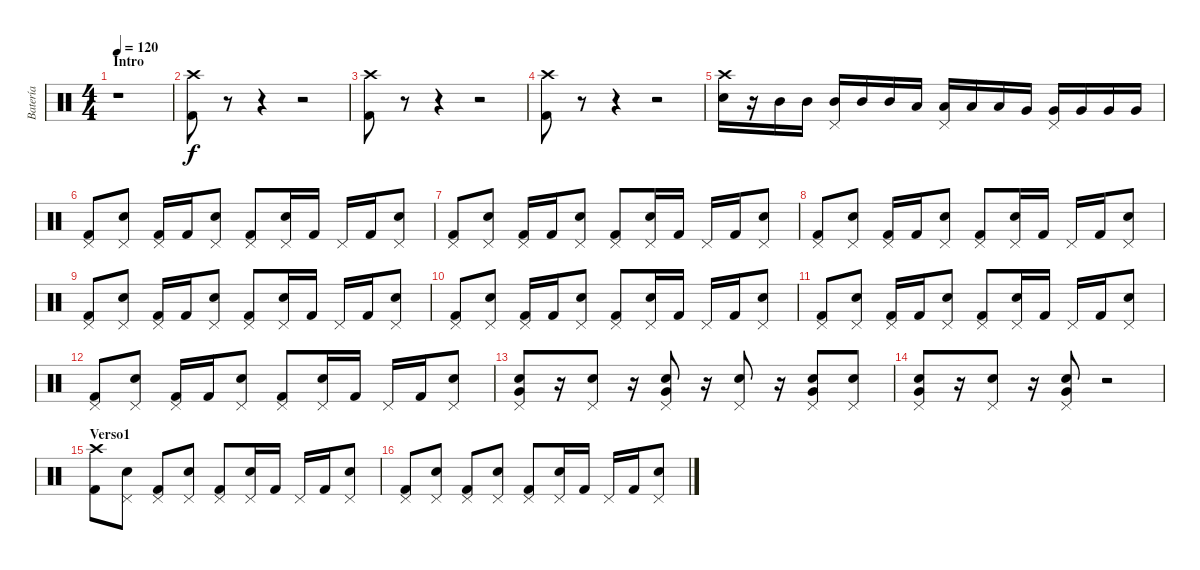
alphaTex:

\track ("Batería" "Batería") {instrument percussion}
\staff {score}
\articulation defaults
\ts (4 4)
\section ("" "Intro")
\tempo 120
\clef neutral
\ks c
r.1{dy f} |
("Crash high (hit)" "Kick (hit) 2").8 r.8 r.4 r.2 |
("Crash high (hit)" "Kick (hit) 2").8 r.8 r.4 r.2 |
("Crash high (hit)" "Kick (hit) 2").8 r.8 r.4 r.2 |
("Crash high (hit)" "Snare (hit) 2").16 r.16 "Mid Tom (hit)".16 "Mid Tom (hit)".16 ("Pedal Hi-Hat (hit)" "Mid Tom (hit)").16 "Mid Tom (hit)".16 "Mid Tom (hit)".16 "Low Tom (hit)".16 ("Pedal Hi-Hat (hit)" "Low Tom (hit)").16 "Low Tom (hit)".16 "Low Tom (hit)".16 "Very Low Tom (hit)".16 ("Pedal Hi-Hat (hit)" "Very Low Tom (hit)").16 "Very Low Tom (hit)".16 "Very Low Tom (hit)".16 "Very Low Tom (hit)".16 |
("Pedal Hi-Hat (hit)" "Kick (hit) 2").8 ("Pedal Hi-Hat (hit)" "Snare (hit) 2").8 ("Pedal Hi-Hat (hit)" "Kick (hit) 2").16 "Kick (hit) 2".16 ("Pedal Hi-Hat (hit)" "Snare (hit) 2").8 ("Pedal Hi-Hat (hit)" "Kick (hit) 2").8 ("Pedal Hi-Hat (hit)" "Snare (hit) 2").16 "Kick (hit) 2".16 "Pedal Hi-Hat (hit)".16 "Kick (hit) 2".16 ("Pedal Hi-Hat (hit)" "Snare (hit) 2").8 |
("Pedal Hi-Hat (hit)" "Kick (hit) 2").8 ("Pedal Hi-Hat (hit)" "Snare (hit) 2").8 ("Pedal Hi-Hat (hit)" "Kick (hit) 2").16 "Kick (hit) 2".16 ("Pedal Hi-Hat (hit)" "Snare (hit) 2").8 ("Pedal Hi-Hat (hit)" "Kick (hit) 2").8 ("Pedal Hi-Hat (hit)" "Snare (hit) 2").16 "Kick (hit) 2".16 "Pedal Hi-Hat (hit)".16 "Kick (hit) 2".16 ("Pedal Hi-Hat (hit)" "Snare (hit) 2").8 |
("Pedal Hi-Hat (hit)" "Kick (hit) 2").8 ("Pedal Hi-Hat (hit)" "Snare (hit) 2").8 ("Pedal Hi-Hat (hit)" "Kick (hit) 2").16 "Kick (hit) 2".16 ("Pedal Hi-Hat (hit)" "Snare (hit) 2").8 ("Pedal Hi-Hat (hit)" "Kick (hit) 2").8 ("Pedal Hi-Hat (hit)" "Snare (hit) 2").16 "Kick (hit) 2".16 "Pedal Hi-Hat (hit)".16 "Kick (hit) 2".16 ("Pedal Hi-Hat (hit)" "Snare (hit) 2").8 |
("Pedal Hi-Hat (hit)" "Kick (hit) 2").8 ("Pedal Hi-Hat (hit)" "Snare (hit) 2").8 ("Pedal Hi-Hat (hit)" "Kick (hit) 2").16 "Kick (hit) 2".16 ("Pedal Hi-Hat (hit)" "Snare (hit) 2").8 ("Pedal Hi-Hat (hit)" "Kick (hit) 2").8 ("Pedal Hi-Hat (hit)" "Snare (hit) 2").16 "Kick (hit) 2".16 "Pedal Hi-Hat (hit)".16 "Kick (hit) 2".16 ("Pedal Hi-Hat (hit)" "Snare (hit) 2").8 |
("Pedal Hi-Hat (hit)" "Kick (hit) 2").8 ("Pedal Hi-Hat (hit)" "Snare (hit) 2").8 ("Pedal Hi-Hat (hit)" "Kick (hit) 2").16 "Kick (hit) 2".16 ("Pedal Hi-Hat (hit)" "Snare (hit) 2").8 ("Pedal Hi-Hat (hit)" "Kick (hit) 2").8 ("Pedal Hi-Hat (hit)" "Snare (hit) 2").16 "Kick (hit) 2".16 "Pedal Hi-Hat (hit)".16 "Kick (hit) 2".16 ("Pedal Hi-Hat (hit)" "Snare (hit) 2").8 |
("Pedal Hi-Hat (hit)" "Kick (hit) 2").8 ("Pedal Hi-Hat (hit)" "Snare (hit) 2").8 ("Pedal Hi-Hat (hit)" "Kick (hit) 2").16 "Kick (hit) 2".16 ("Pedal Hi-Hat (hit)" "Snare (hit) 2").8 ("Pedal Hi-Hat (hit)" "Kick (hit) 2").8 ("Pedal Hi-Hat (hit)" "Snare (hit) 2").16 "Kick (hit) 2".16 "Pedal Hi-Hat (hit)".16 "Kick (hit) 2".16 ("Pedal Hi-Hat (hit)" "Snare (hit) 2").8 |
("Pedal Hi-Hat (hit)" "Kick (hit) 2").8 ("Pedal Hi-Hat (hit)" "Snare (hit) 2").8 ("Pedal Hi-Hat (hit)" "Kick (hit) 2").16 "Kick (hit) 2".16 ("Pedal Hi-Hat (hit)" "Snare (hit) 2").8 ("Pedal Hi-Hat (hit)" "Kick (hit) 2").8 ("Pedal Hi-Hat (hit)" "Snare (hit) 2").16 "Kick (hit) 2".16 "Pedal Hi-Hat (hit)".16 "Kick (hit) 2".16 ("Pedal Hi-Hat (hit)" "Snare (hit) 2").8 |
("Very Low Tom (hit)" "Snare (hit) 2" "Pedal Hi-Hat (hit)").8 r.16 ("Snare (hit) 2" "Pedal Hi-Hat (hit)").8 r.16 ("Very Low Tom (hit)" "Snare (hit) 2" "Pedal Hi-Hat (hit)").8 r.16 ("Snare (hit) 2" "Pedal Hi-Hat (hit)").8 r.16 ("Very Low Tom (hit)" "Snare (hit) 2" "Pedal Hi-Hat (hit)").8 ("Snare (hit) 2" "Pedal Hi-Hat (hit)").8 |
("Very Low Tom (hit)" "Snare (hit) 2" "Pedal Hi-Hat (hit)").8 r.16 ("Snare (hit) 2" "Pedal Hi-Hat (hit)").8 r.16 ("Very Low Tom (hit)" "Snare (hit) 2" "Pedal Hi-Hat (hit)").8 r.2 |
\section ("" "Verso1")
("Crash high (hit)" "Kick (hit) 2").8 ("Pedal Hi-Hat (hit)" "Snare (hit) 2").8 ("Pedal Hi-Hat (hit)" "Kick (hit) 2").8 ("Pedal Hi-Hat (hit)" "Snare (hit) 2").8 ("Pedal Hi-Hat (hit)" "Kick (hit) 2").8 ("Pedal Hi-Hat (hit)" "Snare (hit) 2").16 "Kick (hit) 2".16 "Pedal Hi-Hat (hit)".16 "Kick (hit) 2".16 ("Pedal Hi-Hat (hit)" "Snare (hit) 2").8 |
("Pedal Hi-Hat (hit)" "Kick (hit) 2").8 ("Pedal Hi-Hat (hit)" "Snare (hit) 2").8 ("Pedal Hi-Hat (hit)" "Kick (hit) 2").8 ("Pedal Hi-Hat (hit)" "Snare (hit) 2").8 ("Pedal Hi-Hat (hit)" "Kick (hit) 2").8 ("Pedal Hi-Hat (hit)" "Snare (hit) 2").16 "Kick (hit) 2".16 "Pedal Hi-Hat (hit)".16 "Kick (hit) 2".16 ("Pedal Hi-Hat (hit)" "Snare (hit) 2").8
